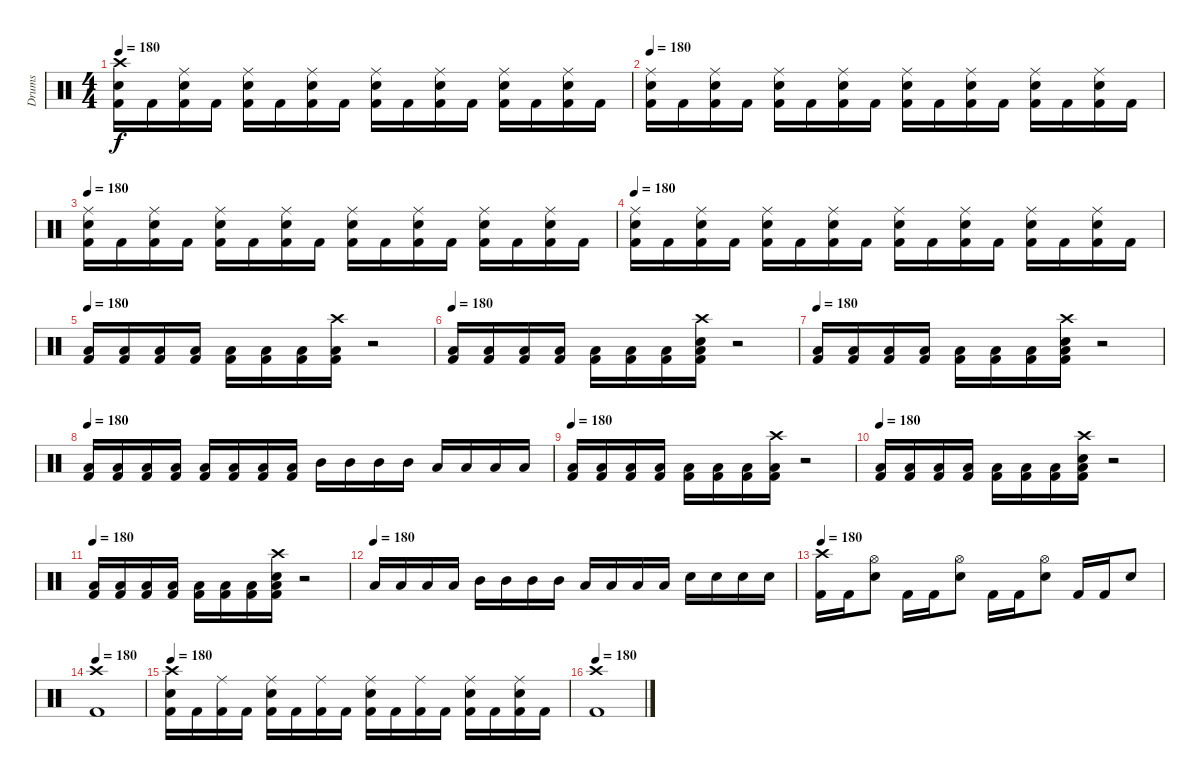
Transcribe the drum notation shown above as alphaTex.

\track ("Drums" "Drums") {instrument percussion}
\staff {score}
\articulation defaults
\ts (4 4)
\tempo 180
\clef neutral
\ks c
("Crash high (hit)" "Snare (hit) 2" "Kick (hit) 2").16{dy f} "Kick (hit) 2".16 ("Ride (middle)" "Snare (hit) 2" "Kick (hit) 2").16 "Kick (hit) 2".16 ("Ride (middle)" "Snare (hit) 2" "Kick (hit) 2").16 "Kick (hit) 2".16 ("Ride (middle)" "Snare (hit) 2" "Kick (hit) 2").16 "Kick (hit) 2".16 ("Ride (middle)" "Snare (hit) 2" "Kick (hit) 2").16 "Kick (hit) 2".16 ("Ride (middle)" "Snare (hit) 2" "Kick (hit) 2").16 "Kick (hit) 2".16 ("Ride (middle)" "Snare (hit) 2" "Kick (hit) 2").16 "Kick (hit) 2".16 ("Ride (middle)" "Snare (hit) 2" "Kick (hit) 2").16 "Kick (hit) 2".16 |
\tempo 180
("Ride (middle)" "Snare (hit) 2" "Kick (hit) 2").16 "Kick (hit) 2".16 ("Ride (middle)" "Snare (hit) 2" "Kick (hit) 2").16 "Kick (hit) 2".16 ("Ride (middle)" "Snare (hit) 2" "Kick (hit) 2").16 "Kick (hit) 2".16 ("Ride (middle)" "Snare (hit) 2" "Kick (hit) 2").16 "Kick (hit) 2".16 ("Ride (middle)" "Snare (hit) 2" "Kick (hit) 2").16 "Kick (hit) 2".16 ("Ride (middle)" "Snare (hit) 2" "Kick (hit) 2").16 "Kick (hit) 2".16 ("Ride (middle)" "Snare (hit) 2" "Kick (hit) 2").16 "Kick (hit) 2".16 ("Ride (middle)" "Snare (hit) 2" "Kick (hit) 2").16 "Kick (hit) 2".16 |
\tempo 180
("Ride (middle)" "Snare (hit) 2" "Kick (hit) 2").16 "Kick (hit) 2".16 ("Ride (middle)" "Snare (hit) 2" "Kick (hit) 2").16 "Kick (hit) 2".16 ("Ride (middle)" "Snare (hit) 2" "Kick (hit) 2").16 "Kick (hit) 2".16 ("Ride (middle)" "Snare (hit) 2" "Kick (hit) 2").16 "Kick (hit) 2".16 ("Ride (middle)" "Snare (hit) 2" "Kick (hit) 2").16 "Kick (hit) 2".16 ("Ride (middle)" "Snare (hit) 2" "Kick (hit) 2").16 "Kick (hit) 2".16 ("Ride (middle)" "Snare (hit) 2" "Kick (hit) 2").16 "Kick (hit) 2".16 ("Ride (middle)" "Snare (hit) 2" "Kick (hit) 2").16 "Kick (hit) 2".16 |
\tempo 180
("Ride (middle)" "Snare (hit) 2" "Kick (hit) 2").16 "Kick (hit) 2".16 ("Ride (middle)" "Snare (hit) 2" "Kick (hit) 2").16 "Kick (hit) 2".16 ("Ride (middle)" "Snare (hit) 2" "Kick (hit) 2").16 "Kick (hit) 2".16 ("Ride (middle)" "Snare (hit) 2" "Kick (hit) 2").16 "Kick (hit) 2".16 ("Ride (middle)" "Snare (hit) 2" "Kick (hit) 2").16 "Kick (hit) 2".16 ("Ride (middle)" "Snare (hit) 2" "Kick (hit) 2").16 "Kick (hit) 2".16 ("Ride (middle)" "Snare (hit) 2" "Kick (hit) 2").16 "Kick (hit) 2".16 ("Ride (middle)" "Snare (hit) 2" "Kick (hit) 2").16 "Kick (hit) 2".16 |
\tempo 180
("Low Tom (hit)" "Kick (hit) 2").16 ("Low Tom (hit)" "Kick (hit) 2").16 ("Low Tom (hit)" "Kick (hit) 2").16 ("Low Tom (hit)" "Kick (hit) 2").16 ("Low Tom (hit)" "Kick (hit) 2").16 ("Low Tom (hit)" "Kick (hit) 2").16 ("Low Tom (hit)" "Kick (hit) 2").16 ("Crash high (hit)" "Low Tom (hit)" "Kick (hit) 2").16 r.2 |
\tempo 180
("Low Tom (hit)" "Kick (hit) 2").16 ("Low Tom (hit)" "Kick (hit) 2").16 ("Low Tom (hit)" "Kick (hit) 2").16 ("Low Tom (hit)" "Kick (hit) 2").16 ("Low Tom (hit)" "Kick (hit) 2").16 ("Low Tom (hit)" "Kick (hit) 2").16 ("Low Tom (hit)" "Kick (hit) 2").16 ("Crash high (hit)" "Snare (hit) 2" "Low Tom (hit)" "Kick (hit) 2").16 r.2 |
\tempo 180
("Low Tom (hit)" "Kick (hit) 2").16 ("Low Tom (hit)" "Kick (hit) 2").16 ("Low Tom (hit)" "Kick (hit) 2").16 ("Low Tom (hit)" "Kick (hit) 2").16 ("Low Tom (hit)" "Kick (hit) 2").16 ("Low Tom (hit)" "Kick (hit) 2").16 ("Low Tom (hit)" "Kick (hit) 2").16 ("Crash high (hit)" "Snare (hit) 2" "Low Tom (hit)" "Kick (hit) 2").16 r.2 |
\tempo 180
("Low Tom (hit)" "Kick (hit) 2").16 ("Low Tom (hit)" "Kick (hit) 2").16 ("Low Tom (hit)" "Kick (hit) 2").16 ("Low Tom (hit)" "Kick (hit) 2").16 ("Low Tom (hit)" "Kick (hit) 2").16 ("Low Tom (hit)" "Kick (hit) 2").16 ("Low Tom (hit)" "Kick (hit) 2").16 ("Low Tom (hit)" "Kick (hit) 2").16 "Mid Tom (hit)".16 "Mid Tom (hit)".16 "Mid Tom (hit)".16 "Mid Tom (hit)".16 "Low Floor Tom (hit)".16 "Low Floor Tom (hit)".16 "Low Floor Tom (hit)".16 "Low Floor Tom (hit)".16 |
\tempo 180
("Low Tom (hit)" "Kick (hit) 2").16 ("Low Tom (hit)" "Kick (hit) 2").16 ("Low Tom (hit)" "Kick (hit) 2").16 ("Low Tom (hit)" "Kick (hit) 2").16 ("Low Tom (hit)" "Kick (hit) 2").16 ("Low Tom (hit)" "Kick (hit) 2").16 ("Low Tom (hit)" "Kick (hit) 2").16 ("Crash high (hit)" "Low Tom (hit)" "Kick (hit) 2").16 r.2 |
\tempo 180
("Low Tom (hit)" "Kick (hit) 2").16 ("Low Tom (hit)" "Kick (hit) 2").16 ("Low Tom (hit)" "Kick (hit) 2").16 ("Low Tom (hit)" "Kick (hit) 2").16 ("Low Tom (hit)" "Kick (hit) 2").16 ("Low Tom (hit)" "Kick (hit) 2").16 ("Low Tom (hit)" "Kick (hit) 2").16 ("Crash high (hit)" "Snare (hit) 2" "Low Tom (hit)" "Kick (hit) 2").16 r.2 |
\tempo 180
("Low Tom (hit)" "Kick (hit) 2").16 ("Low Tom (hit)" "Kick (hit) 2").16 ("Low Tom (hit)" "Kick (hit) 2").16 ("Low Tom (hit)" "Kick (hit) 2").16 ("Low Tom (hit)" "Kick (hit) 2").16 ("Low Tom (hit)" "Kick (hit) 2").16 ("Low Tom (hit)" "Kick (hit) 2").16 ("Crash high (hit)" "Snare (hit) 2" "Low Tom (hit)" "Kick (hit) 2").16 r.2 |
\tempo (180)
"Low Floor Tom (hit)".16 "Low Floor Tom (hit)".16 "Low Floor Tom (hit)".16 "Low Floor Tom (hit)".16 "Mid Tom (hit)".16 "Mid Tom (hit)".16 "Mid Tom (hit)".16 "Mid Tom (hit)".16 "Low Tom (hit)".16 "Low Tom (hit)".16 "Low Tom (hit)".16 "Low Tom (hit)".16 "Snare (hit) 2".16 "Snare (hit) 2".16 "Snare (hit) 2".16 "Snare (hit) 2".16 |
\tempo 180
("Crash high (hit)" "Kick (hit) 2").16 "Kick (hit) 2".16 ("Hi-Hat (open)" "Snare (hit) 2").8 "Kick (hit) 2".16 "Kick (hit) 2".16 ("Hi-Hat (open)" "Snare (hit) 2").8 "Kick (hit) 2".16 "Kick (hit) 2".16 ("Hi-Hat (open)" "Snare (hit) 2").8 "Kick (hit) 2".16 "Kick (hit) 2".16 "Snare (hit) 2".8 |
\tempo 180
("Crash high (hit)" "Kick (hit) 2").1 |
\tempo 180
("Crash high (hit)" "Snare (hit) 2" "Kick (hit) 2").16 "Kick (hit) 2".16 ("Ride (middle)" "Kick (hit) 2").16 "Kick (hit) 2".16 ("Ride (middle)" "Snare (hit) 2" "Kick (hit) 2").16 "Kick (hit) 2".16 ("Ride (middle)" "Kick (hit) 2").16 "Kick (hit) 2".16 ("Ride (middle)" "Snare (hit) 2" "Kick (hit) 2").16 "Kick (hit) 2".16 ("Ride (middle)" "Kick (hit) 2").16 "Kick (hit) 2".16 ("Ride (middle)" "Snare (hit) 2" "Kick (hit) 2").16 "Kick (hit) 2".16 ("Ride (middle)" "Snare (hit) 2" "Kick (hit) 2").16 "Kick (hit) 2".16 |
\tempo 180
("Crash high (hit)" "Kick (hit) 2").1
